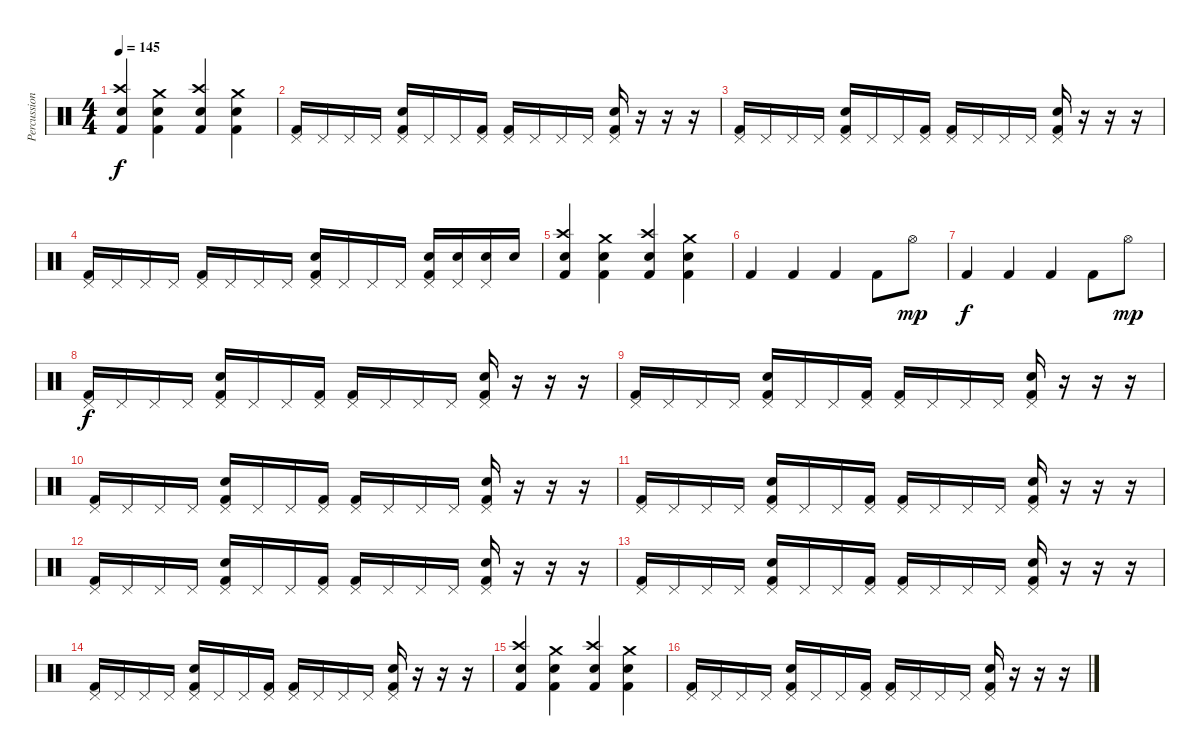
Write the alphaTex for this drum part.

\track ("Percussion" "Percussion") {instrument percussion}
\staff {score}
\articulation defaults
\ts (4 4)
\tempo 145
\clef neutral
\ks c
("Electric Snare (hit)" "Crash high (hit)" "Kick (hit) 2").4{dy f} ("Electric Snare (hit)" "Crash medium (hit)" "Kick (hit) 2").4 ("Electric Snare (hit)" "Crash high (hit)" "Kick (hit) 2").4 ("Electric Snare (hit)" "Crash medium (hit)" "Kick (hit) 2").4 |
("Kick (hit) 2" "Pedal Hi-Hat (hit)").16 "Pedal Hi-Hat (hit)".16 "Pedal Hi-Hat (hit)".16 "Pedal Hi-Hat (hit)".16 ("Electric Snare (hit)" "Kick (hit) 2" "Pedal Hi-Hat (hit)").16 "Pedal Hi-Hat (hit)".16 "Pedal Hi-Hat (hit)".16 ("Kick (hit) 2" "Pedal Hi-Hat (hit)").16 ("Kick (hit) 2" "Pedal Hi-Hat (hit)").16 "Pedal Hi-Hat (hit)".16 "Pedal Hi-Hat (hit)".16 "Pedal Hi-Hat (hit)".16 ("Electric Snare (hit)" "Kick (hit) 2" "Pedal Hi-Hat (hit)").16 r.16 r.16 r.16 |
("Kick (hit) 2" "Pedal Hi-Hat (hit)").16 "Pedal Hi-Hat (hit)".16 "Pedal Hi-Hat (hit)".16 "Pedal Hi-Hat (hit)".16 ("Electric Snare (hit)" "Kick (hit) 2" "Pedal Hi-Hat (hit)").16 "Pedal Hi-Hat (hit)".16 "Pedal Hi-Hat (hit)".16 ("Kick (hit) 2" "Pedal Hi-Hat (hit)").16 ("Kick (hit) 2" "Pedal Hi-Hat (hit)").16 "Pedal Hi-Hat (hit)".16 "Pedal Hi-Hat (hit)".16 "Pedal Hi-Hat (hit)".16 ("Electric Snare (hit)" "Kick (hit) 2" "Pedal Hi-Hat (hit)").16 r.16 r.16 r.16 |
("Kick (hit) 2" "Pedal Hi-Hat (hit)").16 "Pedal Hi-Hat (hit)".16 "Pedal Hi-Hat (hit)".16 "Pedal Hi-Hat (hit)".16 ("Kick (hit) 2" "Pedal Hi-Hat (hit)").16 "Pedal Hi-Hat (hit)".16 "Pedal Hi-Hat (hit)".16 "Pedal Hi-Hat (hit)".16 ("Electric Snare (hit)" "Kick (hit) 2" "Pedal Hi-Hat (hit)").16 "Pedal Hi-Hat (hit)".16 "Pedal Hi-Hat (hit)".16 "Pedal Hi-Hat (hit)".16 ("Electric Snare (hit)" "Kick (hit) 2" "Pedal Hi-Hat (hit)").16 ("Electric Snare (hit)" "Pedal Hi-Hat (hit)").16 ("Electric Snare (hit)" "Pedal Hi-Hat (hit)").16 "Electric Snare (hit)".16 |
("Electric Snare (hit)" "Crash high (hit)" "Kick (hit) 2").4 ("Electric Snare (hit)" "Crash medium (hit)" "Kick (hit) 2").4 ("Electric Snare (hit)" "Crash high (hit)" "Kick (hit) 2").4 ("Electric Snare (hit)" "Crash medium (hit)" "Kick (hit) 2").4 |
"Kick (hit) 2".4 "Kick (hit) 2".4 "Kick (hit) 2".4 "Kick (hit) 2".8 "Hi-Hat (open)".8{dy mp} |
"Kick (hit) 2".4{dy f} "Kick (hit) 2".4 "Kick (hit) 2".4 "Kick (hit) 2".8 "Hi-Hat (open)".8{dy mp} |
("Kick (hit) 2" "Pedal Hi-Hat (hit)").16{dy f} "Pedal Hi-Hat (hit)".16 "Pedal Hi-Hat (hit)".16 "Pedal Hi-Hat (hit)".16 ("Electric Snare (hit)" "Kick (hit) 2" "Pedal Hi-Hat (hit)").16 "Pedal Hi-Hat (hit)".16 "Pedal Hi-Hat (hit)".16 ("Kick (hit) 2" "Pedal Hi-Hat (hit)").16 ("Kick (hit) 2" "Pedal Hi-Hat (hit)").16 "Pedal Hi-Hat (hit)".16 "Pedal Hi-Hat (hit)".16 "Pedal Hi-Hat (hit)".16 ("Electric Snare (hit)" "Kick (hit) 2" "Pedal Hi-Hat (hit)").16 r.16 r.16 r.16 |
("Kick (hit) 2" "Pedal Hi-Hat (hit)").16 "Pedal Hi-Hat (hit)".16 "Pedal Hi-Hat (hit)".16 "Pedal Hi-Hat (hit)".16 ("Electric Snare (hit)" "Kick (hit) 2" "Pedal Hi-Hat (hit)").16 "Pedal Hi-Hat (hit)".16 "Pedal Hi-Hat (hit)".16 ("Kick (hit) 2" "Pedal Hi-Hat (hit)").16 ("Kick (hit) 2" "Pedal Hi-Hat (hit)").16 "Pedal Hi-Hat (hit)".16 "Pedal Hi-Hat (hit)".16 "Pedal Hi-Hat (hit)".16 ("Electric Snare (hit)" "Kick (hit) 2" "Pedal Hi-Hat (hit)").16 r.16 r.16 r.16 |
("Kick (hit) 2" "Pedal Hi-Hat (hit)").16 "Pedal Hi-Hat (hit)".16 "Pedal Hi-Hat (hit)".16 "Pedal Hi-Hat (hit)".16 ("Electric Snare (hit)" "Kick (hit) 2" "Pedal Hi-Hat (hit)").16 "Pedal Hi-Hat (hit)".16 "Pedal Hi-Hat (hit)".16 ("Kick (hit) 2" "Pedal Hi-Hat (hit)").16 ("Kick (hit) 2" "Pedal Hi-Hat (hit)").16 "Pedal Hi-Hat (hit)".16 "Pedal Hi-Hat (hit)".16 "Pedal Hi-Hat (hit)".16 ("Electric Snare (hit)" "Kick (hit) 2" "Pedal Hi-Hat (hit)").16 r.16 r.16 r.16 |
("Kick (hit) 2" "Pedal Hi-Hat (hit)").16 "Pedal Hi-Hat (hit)".16 "Pedal Hi-Hat (hit)".16 "Pedal Hi-Hat (hit)".16 ("Electric Snare (hit)" "Kick (hit) 2" "Pedal Hi-Hat (hit)").16 "Pedal Hi-Hat (hit)".16 "Pedal Hi-Hat (hit)".16 ("Kick (hit) 2" "Pedal Hi-Hat (hit)").16 ("Kick (hit) 2" "Pedal Hi-Hat (hit)").16 "Pedal Hi-Hat (hit)".16 "Pedal Hi-Hat (hit)".16 "Pedal Hi-Hat (hit)".16 ("Electric Snare (hit)" "Kick (hit) 2" "Pedal Hi-Hat (hit)").16 r.16 r.16 r.16 |
("Kick (hit) 2" "Pedal Hi-Hat (hit)").16 "Pedal Hi-Hat (hit)".16 "Pedal Hi-Hat (hit)".16 "Pedal Hi-Hat (hit)".16 ("Electric Snare (hit)" "Kick (hit) 2" "Pedal Hi-Hat (hit)").16 "Pedal Hi-Hat (hit)".16 "Pedal Hi-Hat (hit)".16 ("Kick (hit) 2" "Pedal Hi-Hat (hit)").16 ("Kick (hit) 2" "Pedal Hi-Hat (hit)").16 "Pedal Hi-Hat (hit)".16 "Pedal Hi-Hat (hit)".16 "Pedal Hi-Hat (hit)".16 ("Electric Snare (hit)" "Kick (hit) 2" "Pedal Hi-Hat (hit)").16 r.16 r.16 r.16 |
("Kick (hit) 2" "Pedal Hi-Hat (hit)").16 "Pedal Hi-Hat (hit)".16 "Pedal Hi-Hat (hit)".16 "Pedal Hi-Hat (hit)".16 ("Electric Snare (hit)" "Kick (hit) 2" "Pedal Hi-Hat (hit)").16 "Pedal Hi-Hat (hit)".16 "Pedal Hi-Hat (hit)".16 ("Kick (hit) 2" "Pedal Hi-Hat (hit)").16 ("Kick (hit) 2" "Pedal Hi-Hat (hit)").16 "Pedal Hi-Hat (hit)".16 "Pedal Hi-Hat (hit)".16 "Pedal Hi-Hat (hit)".16 ("Electric Snare (hit)" "Kick (hit) 2" "Pedal Hi-Hat (hit)").16 r.16 r.16 r.16 |
("Kick (hit) 2" "Pedal Hi-Hat (hit)").16 "Pedal Hi-Hat (hit)".16 "Pedal Hi-Hat (hit)".16 "Pedal Hi-Hat (hit)".16 ("Electric Snare (hit)" "Kick (hit) 2" "Pedal Hi-Hat (hit)").16 "Pedal Hi-Hat (hit)".16 "Pedal Hi-Hat (hit)".16 ("Kick (hit) 2" "Pedal Hi-Hat (hit)").16 ("Kick (hit) 2" "Pedal Hi-Hat (hit)").16 "Pedal Hi-Hat (hit)".16 "Pedal Hi-Hat (hit)".16 "Pedal Hi-Hat (hit)".16 ("Electric Snare (hit)" "Kick (hit) 2" "Pedal Hi-Hat (hit)").16 r.16 r.16 r.16 |
("Electric Snare (hit)" "Crash high (hit)" "Kick (hit) 2").4 ("Electric Snare (hit)" "Crash medium (hit)" "Kick (hit) 2").4 ("Electric Snare (hit)" "Crash high (hit)" "Kick (hit) 2").4 ("Electric Snare (hit)" "Crash medium (hit)" "Kick (hit) 2").4 |
("Kick (hit) 2" "Pedal Hi-Hat (hit)").16 "Pedal Hi-Hat (hit)".16 "Pedal Hi-Hat (hit)".16 "Pedal Hi-Hat (hit)".16 ("Electric Snare (hit)" "Kick (hit) 2" "Pedal Hi-Hat (hit)").16 "Pedal Hi-Hat (hit)".16 "Pedal Hi-Hat (hit)".16 ("Kick (hit) 2" "Pedal Hi-Hat (hit)").16 ("Kick (hit) 2" "Pedal Hi-Hat (hit)").16 "Pedal Hi-Hat (hit)".16 "Pedal Hi-Hat (hit)".16 "Pedal Hi-Hat (hit)".16 ("Electric Snare (hit)" "Kick (hit) 2" "Pedal Hi-Hat (hit)").16 r.16 r.16 r.16
